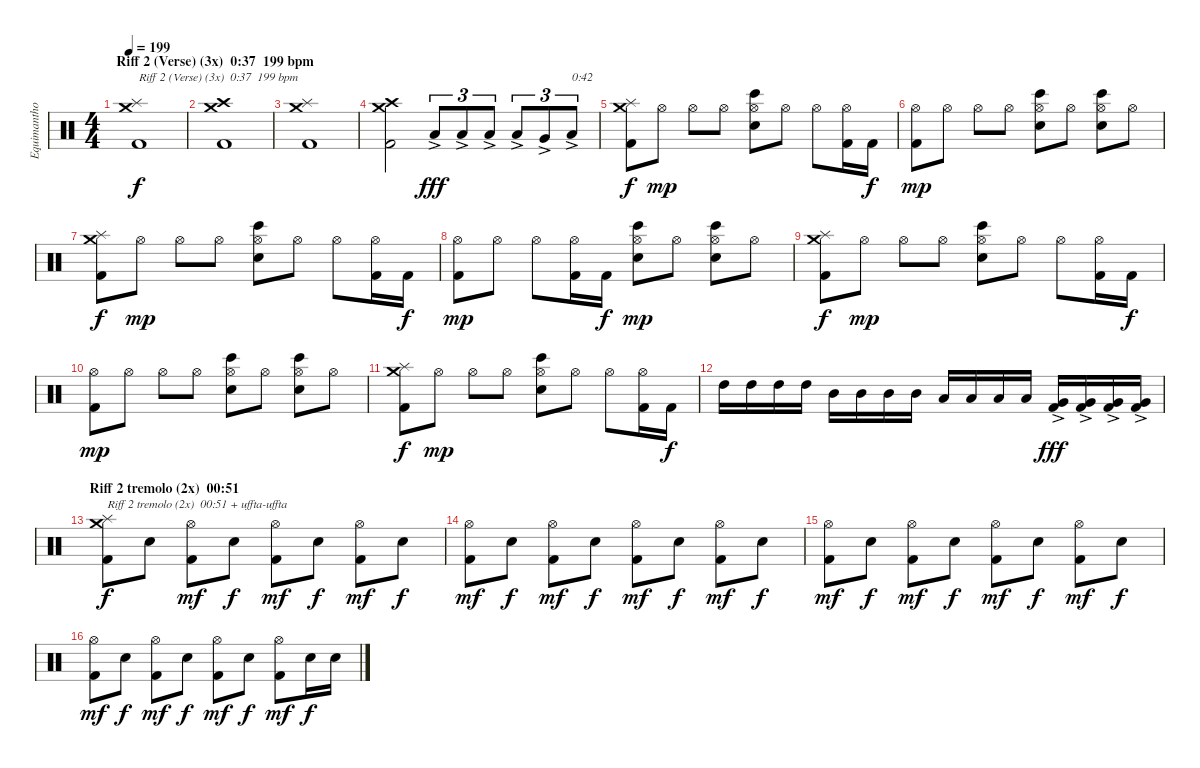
\track ("Equimanthorn" "Equimantho") {instrument percussion}
\staff {score}
\articulation defaults
\ts (4 4)
\section ("" "Riff 2 (Verse) (3x)  0:37  199 bpm")
\tempo 199
\clef neutral
\ks c
("Kick (hit) 2" "Splash (hit)" "Crash medium (hit)").1{txt "Riff 2 (Verse) (3x)  0:37  199 bpm" dy f} |
("Kick (hit) 2" "Crash high (hit)" "Crash medium (hit)").1 |
("Kick (hit) 2" "Splash (hit)" "Crash medium (hit)").1 |
("Kick (hit) 2" "Crash high (hit)" "Crash medium (hit)").2 "Low Tom (hit)"{ac}.8{tu (3 2) dy fff} "Low Tom (hit)"{ac}.8{tu (3 2)} "Low Tom (hit)"{ac}.8{tu (3 2)} "Low Tom (hit)"{ac}.8{tu (3 2)} "Very Low Tom (hit)"{ac}.8{tu (3 2)} "Low Floor Tom (hit)"{ac}.8{tu (3 2) txt "0:42"} |
("Kick (hit) 2" "Splash (hit)" "Crash medium (hit)").8{dy f} "Hi-Hat (open)".8{dy mp} "Hi-Hat (open)".8 "Hi-Hat (open)".8 ("Bongo High (hit)" "Electric Snare (hit)" "Hi-Hat (open)").8 "Hi-Hat (open)".8 "Hi-Hat (open)".8 ("Kick (hit) 2" "Hi-Hat (open)").16 "Kick (hit) 2".16{dy f} |
("Kick (hit) 2" "Hi-Hat (open)").8{dy mp} "Hi-Hat (open)".8 "Hi-Hat (open)".8 "Hi-Hat (open)".8 ("Bongo High (hit)" "Electric Snare (hit)" "Hi-Hat (open)").8 "Hi-Hat (open)".8 ("Bongo High (hit)" "Electric Snare (hit)" "Hi-Hat (open)").8 "Hi-Hat (open)".8 |
("Kick (hit) 2" "Splash (hit)" "Crash medium (hit)").8{dy f} "Hi-Hat (open)".8{dy mp} "Hi-Hat (open)".8 "Hi-Hat (open)".8 ("Bongo High (hit)" "Electric Snare (hit)" "Hi-Hat (open)").8 "Hi-Hat (open)".8 "Hi-Hat (open)".8 ("Kick (hit) 2" "Hi-Hat (open)").16 "Kick (hit) 2".16{dy f} |
("Kick (hit) 2" "Hi-Hat (open)").8{dy mp} "Hi-Hat (open)".8 "Hi-Hat (open)".8 ("Kick (hit) 2" "Hi-Hat (open)").16 "Kick (hit) 2".16{dy f} ("Bongo High (hit)" "Electric Snare (hit)" "Hi-Hat (open)").8{dy mp} "Hi-Hat (open)".8 ("Bongo High (hit)" "Electric Snare (hit)" "Hi-Hat (open)").8 "Hi-Hat (open)".8 |
("Kick (hit) 2" "Splash (hit)" "Crash medium (hit)").8{dy f} "Hi-Hat (open)".8{dy mp} "Hi-Hat (open)".8 "Hi-Hat (open)".8 ("Bongo High (hit)" "Electric Snare (hit)" "Hi-Hat (open)").8 "Hi-Hat (open)".8 "Hi-Hat (open)".8 ("Kick (hit) 2" "Hi-Hat (open)").16 "Kick (hit) 2".16{dy f} |
("Kick (hit) 2" "Hi-Hat (open)").8{dy mp} "Hi-Hat (open)".8 "Hi-Hat (open)".8 "Hi-Hat (open)".8 ("Bongo High (hit)" "Electric Snare (hit)" "Hi-Hat (open)").8 "Hi-Hat (open)".8 ("Bongo High (hit)" "Electric Snare (hit)" "Hi-Hat (open)").8 "Hi-Hat (open)".8 |
("Kick (hit) 2" "Splash (hit)" "Crash medium (hit)").8{dy f} "Hi-Hat (open)".8{dy mp} "Hi-Hat (open)".8 "Hi-Hat (open)".8 ("Bongo High (hit)" "Electric Snare (hit)" "Hi-Hat (open)").8 "Hi-Hat (open)".8 "Hi-Hat (open)".8 ("Kick (hit) 2" "Hi-Hat (open)").16 "Kick (hit) 2".16{dy f} |
"High Tom (hit)".16 "High Tom (hit)".16 "High Tom (hit)".16 "High Tom (hit)".16 "Mid Tom (hit)".16 "Mid Tom (hit)".16 "Mid Tom (hit)".16 "Mid Tom (hit)".16 "Low Tom (hit)".16 "Low Tom (hit)".16 "Low Tom (hit)".16 "Low Tom (hit)".16 ("Kick (hit) 2" "Very Low Tom (hit)"{ac}).16{dy fff} ("Kick (hit) 2" "Very Low Tom (hit)"{ac}).16 ("Kick (hit) 2" "Very Low Tom (hit)"{ac}).16 ("Kick (hit) 2" "Very Low Tom (hit)"{ac}).16 |
\section ("" "Riff 2 tremolo (2x)  00:51")
("Kick (hit) 2" "Splash (hit)" "Crash medium (hit)").8{txt "Riff 2 tremolo (2x)  00:51 + uffta-uffta" dy f} "Electric Snare (hit)".8 ("Kick (hit) 2" "Hi-Hat (open)").8{dy mf} "Electric Snare (hit)".8{dy f} ("Kick (hit) 2" "Hi-Hat (open)").8{dy mf} "Electric Snare (hit)".8{dy f} ("Kick (hit) 2" "Hi-Hat (open)").8{dy mf} "Electric Snare (hit)".8{dy f} |
("Kick (hit) 2" "Hi-Hat (open)").8{dy mf} "Electric Snare (hit)".8{dy f} ("Kick (hit) 2" "Hi-Hat (open)").8{dy mf} "Electric Snare (hit)".8{dy f} ("Kick (hit) 2" "Hi-Hat (open)").8{dy mf} "Electric Snare (hit)".8{dy f} ("Kick (hit) 2" "Hi-Hat (open)").8{dy mf} "Electric Snare (hit)".8{dy f} |
("Kick (hit) 2" "Hi-Hat (open)").8{dy mf} "Electric Snare (hit)".8{dy f} ("Kick (hit) 2" "Hi-Hat (open)").8{dy mf} "Electric Snare (hit)".8{dy f} ("Kick (hit) 2" "Hi-Hat (open)").8{dy mf} "Electric Snare (hit)".8{dy f} ("Kick (hit) 2" "Hi-Hat (open)").8{dy mf} "Electric Snare (hit)".8{dy f} |
("Kick (hit) 2" "Hi-Hat (open)").8{dy mf} "Electric Snare (hit)".8{dy f} ("Kick (hit) 2" "Hi-Hat (open)").8{dy mf} "Electric Snare (hit)".8{dy f} ("Kick (hit) 2" "Hi-Hat (open)").8{dy mf} "Electric Snare (hit)".8{dy f} ("Kick (hit) 2" "Hi-Hat (open)").8{dy mf} "Electric Snare (hit)".16{dy f} "Electric Snare (hit)".16
